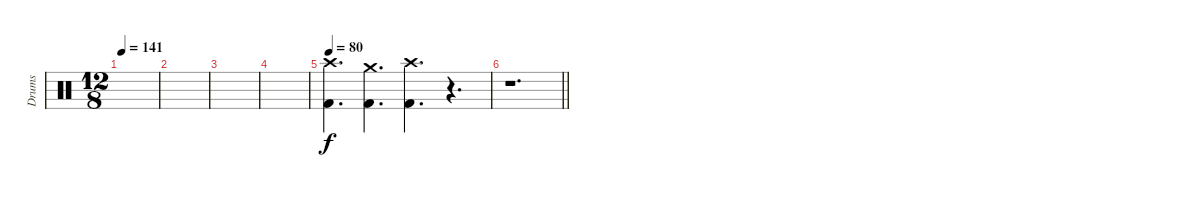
\track ("Drums" "Drums") {instrument percussion}
\staff {score}
\articulation defaults
\ts (12 8)
\tempo 141
\clef neutral
\ks c
|
|
|
|
\tempo 80
("Crash high (hit)" "Kick (hit) 2").4{d} ("Crash medium (hit)" "Kick (hit) 2").4{d} ("Crash high (hit)" "Kick (hit) 2").4{d} r.4{d} |
\barLineRight lightlight
r.1{d}
